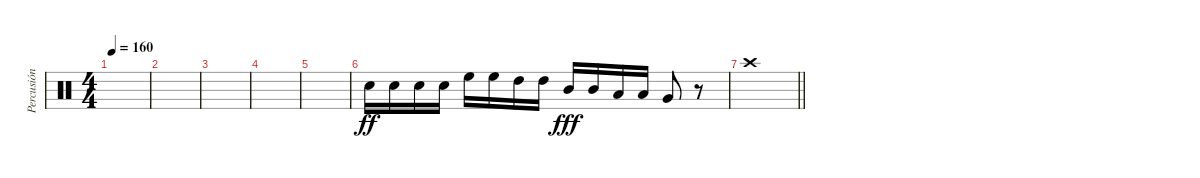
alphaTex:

\track ("Percusión" "Percusión") {instrument percussion}
\staff {score}
\articulation defaults
\ts (4 4)
\tempo 160
\clef neutral
\ks c
|
|
|
|
|
"Electric Snare (hit)".16{dy ff} "Electric Snare (hit)".16 "Electric Snare (hit)".16 "Electric Snare (hit)".16 "High Floor Tom (hit)".16 "High Floor Tom (hit)".16 "High Tom (hit)".16 "High Tom (hit)".16 "Mid Tom (hit)".16{dy fff} "Mid Tom (hit)".16 "Low Tom (hit)".16 "Low Tom (hit)".16 "Very Low Tom (hit)".8 r.8 |
\barLineRight lightlight "Crash high (hit)".1{volume 14}
